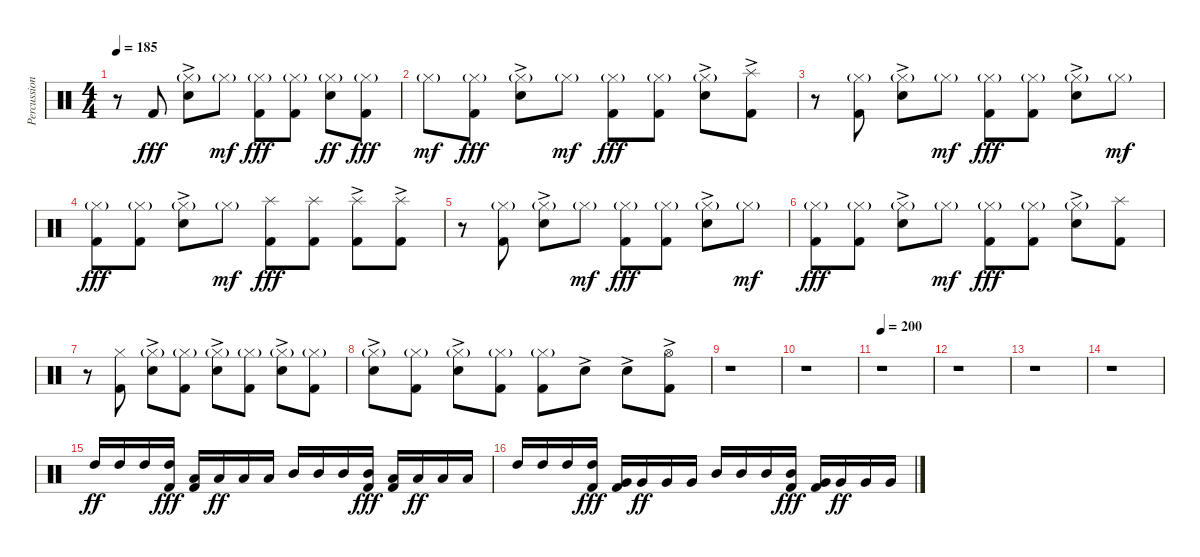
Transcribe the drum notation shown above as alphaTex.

\track ("Percussion , Drums - Travis Smith" "Percussion") {instrument percussion}
\staff {score}
\articulation defaults
\ts (4 4)
\tempo 185
\clef neutral
\ks c
r.8{dy fff} "Kick (hit) 2".8 ("Hi-Hat (closed)"{g} "Electric Snare (hit)"{ac}).8 "Hi-Hat (closed)"{g}.8{dy mf} ("Hi-Hat (closed)"{g} "Kick (hit) 2").8{dy fff} ("Hi-Hat (closed)"{g} "Kick (hit) 2").8 ("Hi-Hat (closed)"{g} "Electric Snare (hit)").8{dy ff} ("Hi-Hat (closed)"{g} "Kick (hit) 2").8{dy fff} |
"Hi-Hat (closed)"{g}.8{dy mf} ("Hi-Hat (closed)"{g} "Kick (hit) 2").8{dy fff} ("Hi-Hat (closed)"{g} "Electric Snare (hit)"{ac}).8 "Hi-Hat (closed)"{g}.8{dy mf} ("Hi-Hat (closed)"{g} "Kick (hit) 2").8{dy fff} ("Hi-Hat (closed)"{g} "Kick (hit) 2").8 ("Hi-Hat (closed)"{g} "Electric Snare (hit)"{ac}).8 ("Splash (hit)"{ac} "Kick (hit) 2").8 |
r.8 ("Hi-Hat (closed)"{g} "Kick (hit) 2").8 ("Hi-Hat (closed)"{g} "Electric Snare (hit)"{ac}).8 "Hi-Hat (closed)"{g}.8{dy mf} ("Hi-Hat (closed)"{g} "Kick (hit) 2").8{dy fff} ("Hi-Hat (closed)"{g} "Kick (hit) 2").8 ("Hi-Hat (closed)"{g} "Electric Snare (hit)"{ac}).8 "Hi-Hat (closed)"{g}.8{dy mf} |
("Hi-Hat (closed)"{g} "Kick (hit) 2").8{dy fff} ("Hi-Hat (closed)"{g} "Kick (hit) 2").8 ("Hi-Hat (closed)"{g} "Electric Snare (hit)"{ac}).8 "Hi-Hat (closed)"{g}.8{dy mf} ("Splash (hit)" "Kick (hit) 2").8{dy fff} ("Splash (hit)" "Kick (hit) 2").8 ("Splash (hit)"{ac} "Kick (hit) 2").8 ("Splash (hit)"{ac} "Kick (hit) 2").8 |
r.8 ("Hi-Hat (closed)"{g} "Kick (hit) 2").8 ("Hi-Hat (closed)"{g} "Electric Snare (hit)"{ac}).8 "Hi-Hat (closed)"{g}.8{dy mf} ("Hi-Hat (closed)"{g} "Kick (hit) 2").8{dy fff} ("Hi-Hat (closed)"{g} "Kick (hit) 2").8 ("Hi-Hat (closed)"{g} "Electric Snare (hit)"{ac}).8 "Hi-Hat (closed)"{g}.8{dy mf} |
("Hi-Hat (closed)"{g} "Kick (hit) 2").8{dy fff} ("Hi-Hat (closed)"{g} "Kick (hit) 2").8 ("Hi-Hat (closed)"{g} "Electric Snare (hit)"{ac}).8 "Hi-Hat (closed)"{g}.8{dy mf} ("Hi-Hat (closed)"{g} "Kick (hit) 2").8{dy fff} ("Hi-Hat (closed)"{g} "Kick (hit) 2").8 ("Hi-Hat (closed)"{g} "Electric Snare (hit)"{ac}).8 ("Splash (hit)" "Kick (hit) 2").8 |
r.8 ("Hi-Hat (closed)" "Kick (hit) 2").8 ("Hi-Hat (closed)"{g} "Electric Snare (hit)"{ac}).8 ("Hi-Hat (closed)"{g} "Kick (hit) 2").8 ("Hi-Hat (closed)"{g} "Electric Snare (hit)"{ac}).8 ("Hi-Hat (closed)"{g} "Kick (hit) 2").8 ("Hi-Hat (closed)"{g} "Electric Snare (hit)"{ac}).8 ("Hi-Hat (closed)"{g} "Kick (hit) 2").8 |
("Hi-Hat (closed)"{g} "Electric Snare (hit)"{ac}).8 ("Hi-Hat (closed)"{g} "Kick (hit) 2").8 ("Hi-Hat (closed)"{g} "Electric Snare (hit)"{ac}).8 ("Hi-Hat (closed)"{g} "Kick (hit) 2").8 ("Hi-Hat (closed)"{g} "Kick (hit) 2").8 "Electric Snare (hit)"{ac}.8 "Electric Snare (hit)"{ac}.8 ("Hi-Hat (open)"{ac} "Kick (hit) 2").8 |
r.1 |
r.1 |
\tempo 200
r.1 |
r.1 |
r.1 |
r.1 |
"High Tom (hit)".16{dy ff} "High Tom (hit)".16 "High Tom (hit)".16 ("High Tom (hit)" "Kick (hit) 2").16{dy fff} ("Low Tom (hit)" "Kick (hit) 2").16 "Low Tom (hit)".16{dy ff} "Low Tom (hit)".16 "Low Tom (hit)".16 "Mid Tom (hit)".16 "Mid Tom (hit)".16 "Mid Tom (hit)".16 ("Mid Tom (hit)" "Kick (hit) 2").16{dy fff} ("Low Tom (hit)" "Kick (hit) 2").16 "Low Tom (hit)".16{dy ff} "Low Tom (hit)".16 "Low Tom (hit)".16 |
"High Tom (hit)".16 "High Tom (hit)".16 "High Tom (hit)".16 ("High Tom (hit)" "Kick (hit) 2").16{dy fff} ("Very Low Tom (hit)" "Kick (hit) 2").16 "Very Low Tom (hit)".16{dy ff} "Very Low Tom (hit)".16 "Very Low Tom (hit)".16 "Mid Tom (hit)".16 "Mid Tom (hit)".16 "Mid Tom (hit)".16 ("Mid Tom (hit)" "Kick (hit) 2").16{dy fff} ("Very Low Tom (hit)" "Kick (hit) 2").16 "Very Low Tom (hit)".16{dy ff} "Very Low Tom (hit)".16 "Very Low Tom (hit)".16
